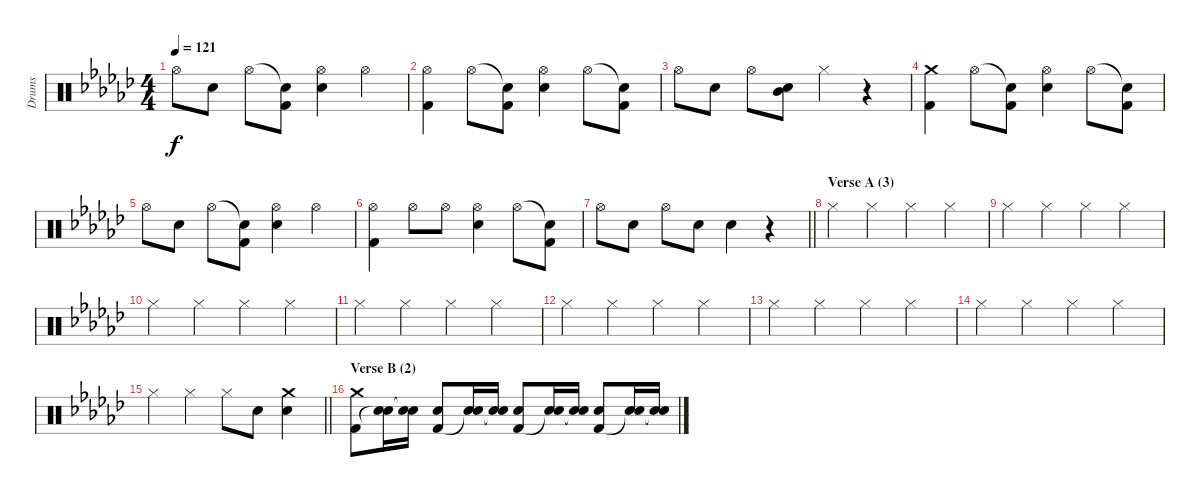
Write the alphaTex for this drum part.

\track ("Drums" "Drums") {instrument percussion}
\staff {score}
\articulation defaults
\ts (4 4)
\tempo 121
\clef neutral
\ks ebminor "Hi-Hat (open)".8{dy f} "Electric Snare (hit)".8 "Hi-Hat (open)".8
("Snare (hit)"{t} "Kick (hit) 2").8 ("Hi-Hat (open)" "Electric Snare (hit)").4 "Hi-Hat (open)".4 |
("Hi-Hat (open)" "Kick (hit) 2").4 "Hi-Hat (open)".8 ("Snare (hit)"{t} "Kick (hit) 2").8 ("Hi-Hat (open)" "Electric Snare (hit)").4 "Hi-Hat (open)".8 ("Snare (hit)"{t} "Kick (hit) 2").8 |
"Hi-Hat (open)".8 "Electric Snare (hit)".8 "Hi-Hat (open)".8 ("Electric Snare (hit)" "Mid Tom (hit)").8 "Hi-Hat (closed)".4 r.4 |
("Crash medium (hit)" "Kick (hit) 2").4 "Hi-Hat (open)".8 ("Snare (hit)"{t} "Kick (hit) 2").8 ("Hi-Hat (open)" "Electric Snare (hit)").4 "Hi-Hat (open)".8 ("Snare (hit)"{t} "Kick (hit) 2").8 |
"Hi-Hat (open)".8 "Electric Snare (hit)".8 "Hi-Hat (open)".8 ("Snare (hit)"{t} "Kick (hit) 2").8 ("Hi-Hat (open)" "Electric Snare (hit)").4 "Hi-Hat (open)".4 |
("Hi-Hat (open)" "Kick (hit) 2").4 "Hi-Hat (open)".8 "Hi-Hat (open)".8 ("Hi-Hat (open)" "Electric Snare (hit)").4 "Hi-Hat (open)".8 ("Snare (hit)"{t} "Kick (hit) 2").8 |
\barLineRight lightlight "Hi-Hat (open)".8 "Electric Snare (hit)".8 "Hi-Hat (open)".8 "Electric Snare (hit)".8 "Electric Snare (hit)".4
r.4 |
\section ("" "Verse A (3)")
"Hi-Hat (closed)".4 "Hi-Hat (closed)".4 "Hi-Hat (closed)".4 "Hi-Hat (closed)".4 |
"Hi-Hat (closed)".4 "Hi-Hat (closed)".4 "Hi-Hat (closed)".4 "Hi-Hat (closed)".4 |
"Hi-Hat (closed)".4 "Hi-Hat (closed)".4 "Hi-Hat (closed)".4 "Hi-Hat (closed)".4 |
"Hi-Hat (closed)".4 "Hi-Hat (closed)".4 "Hi-Hat (closed)".4 "Hi-Hat (closed)".4 |
"Hi-Hat (closed)".4 "Hi-Hat (closed)".4 "Hi-Hat (closed)".4 "Hi-Hat (closed)".4 |
"Hi-Hat (closed)".4 "Hi-Hat (closed)".4 "Hi-Hat (closed)".4 "Hi-Hat (closed)".4 |
"Hi-Hat (closed)".4 "Hi-Hat (closed)".4 "Hi-Hat (closed)".4 "Hi-Hat (closed)".4 |
\barLineRight lightlight "Hi-Hat (closed)".4 "Hi-Hat (closed)".4 "Hi-Hat (closed)".8 "Electric Snare (hit)".8
("Crash medium (hit)" "Electric Snare (hit)").4 |
\section ("" "Verse B (2)")
("Crash medium (hit)" "Kick (hit) 2").8 ("Electric Snare (hit)" "Snare (hit)"{t}).16 ("Electric Snare (hit)" "Snare (hit)"{t}).16 ("Electric Snare (hit)" "Kick (hit) 2").8 ("Electric Snare (hit)" "Snare (hit)"{t}).16 ("Electric Snare (hit)" "Snare (hit)"{t}).16 ("Electric Snare (hit)" "Kick (hit) 2").8 ("Electric Snare (hit)" "Snare (hit)"{t}).16 ("Electric Snare (hit)" "Snare (hit)"{t}).16 ("Electric Snare (hit)" "Kick (hit) 2").8 ("Electric Snare (hit)" "Snare (hit)"{t}).16 ("Electric Snare (hit)" "Snare (hit)"{t}).16
